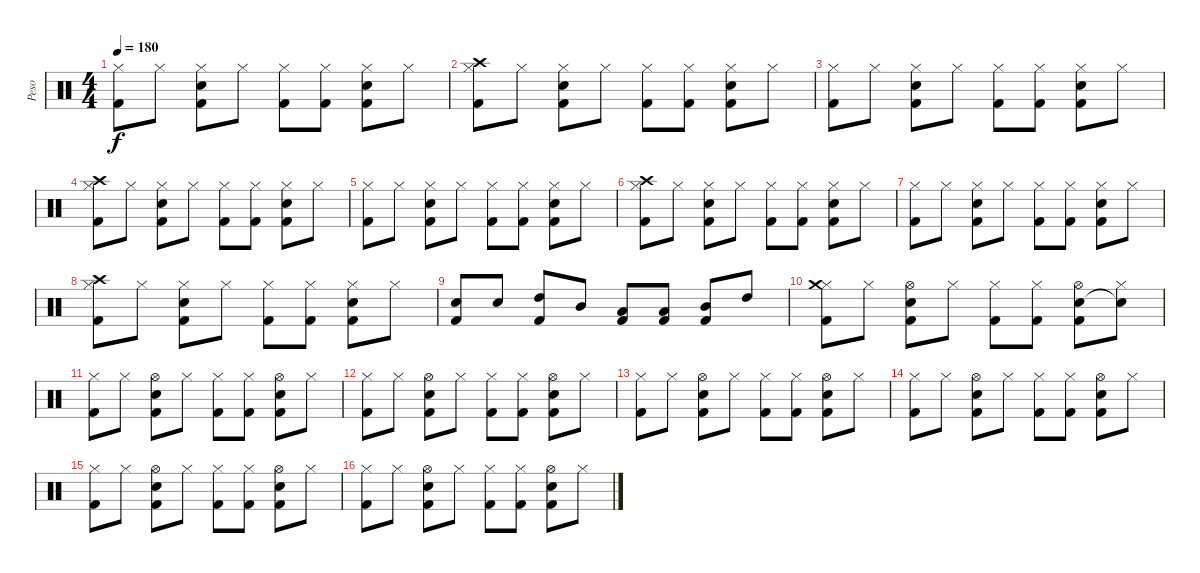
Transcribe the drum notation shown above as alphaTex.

\track ("Peso" "Peso") {instrument percussion}
\staff {score}
\articulation defaults
\ts (4 4)
\tempo 180
\clef neutral
\ks c
("Hi-Hat (closed)" "Kick (hit) 2").8{dy f} "Hi-Hat (closed)".8 ("Hi-Hat (closed)" "Electric Snare (hit)" "Kick (hit) 2").8 "Hi-Hat (closed)".8 ("Hi-Hat (closed)" "Kick (hit) 2").8 ("Hi-Hat (closed)" "Kick (hit) 2").8 ("Hi-Hat (closed)" "Electric Snare (hit)" "Kick (hit) 2").8 "Hi-Hat (closed)".8 |
("Hi-Hat (closed)" "Crash high (hit)" "Kick (hit) 2").8 "Hi-Hat (closed)".8 ("Hi-Hat (closed)" "Electric Snare (hit)" "Kick (hit) 2").8 "Hi-Hat (closed)".8 ("Hi-Hat (closed)" "Kick (hit) 2").8 ("Hi-Hat (closed)" "Kick (hit) 2").8 ("Hi-Hat (closed)" "Electric Snare (hit)" "Kick (hit) 2").8 "Hi-Hat (closed)".8 |
("Hi-Hat (closed)" "Kick (hit) 2").8 "Hi-Hat (closed)".8 ("Hi-Hat (closed)" "Electric Snare (hit)" "Kick (hit) 2").8 "Hi-Hat (closed)".8 ("Hi-Hat (closed)" "Kick (hit) 2").8 ("Hi-Hat (closed)" "Kick (hit) 2").8 ("Hi-Hat (closed)" "Electric Snare (hit)" "Kick (hit) 2").8 "Hi-Hat (closed)".8 |
("Hi-Hat (closed)" "Crash high (hit)" "Kick (hit) 2").8 "Hi-Hat (closed)".8 ("Hi-Hat (closed)" "Electric Snare (hit)" "Kick (hit) 2").8 "Hi-Hat (closed)".8 ("Hi-Hat (closed)" "Kick (hit) 2").8 ("Hi-Hat (closed)" "Kick (hit) 2").8 ("Hi-Hat (closed)" "Electric Snare (hit)" "Kick (hit) 2").8 "Hi-Hat (closed)".8 |
("Hi-Hat (closed)" "Kick (hit) 2").8 "Hi-Hat (closed)".8 ("Hi-Hat (closed)" "Electric Snare (hit)" "Kick (hit) 2").8 "Hi-Hat (closed)".8 ("Hi-Hat (closed)" "Kick (hit) 2").8 ("Hi-Hat (closed)" "Kick (hit) 2").8 ("Hi-Hat (closed)" "Electric Snare (hit)" "Kick (hit) 2").8 "Hi-Hat (closed)".8 |
("Hi-Hat (closed)" "Crash high (hit)" "Kick (hit) 2").8 "Hi-Hat (closed)".8 ("Hi-Hat (closed)" "Electric Snare (hit)" "Kick (hit) 2").8 "Hi-Hat (closed)".8 ("Hi-Hat (closed)" "Kick (hit) 2").8 ("Hi-Hat (closed)" "Kick (hit) 2").8 ("Hi-Hat (closed)" "Electric Snare (hit)" "Kick (hit) 2").8 "Hi-Hat (closed)".8 |
("Hi-Hat (closed)" "Kick (hit) 2").8 "Hi-Hat (closed)".8 ("Hi-Hat (closed)" "Electric Snare (hit)" "Kick (hit) 2").8 "Hi-Hat (closed)".8 ("Hi-Hat (closed)" "Kick (hit) 2").8 ("Hi-Hat (closed)" "Kick (hit) 2").8 ("Hi-Hat (closed)" "Electric Snare (hit)" "Kick (hit) 2").8 "Hi-Hat (closed)".8 |
("Hi-Hat (closed)" "Crash high (hit)" "Kick (hit) 2").8 "Hi-Hat (closed)".8 ("Hi-Hat (closed)" "Electric Snare (hit)" "Kick (hit) 2").8 "Hi-Hat (closed)".8 ("Hi-Hat (closed)" "Kick (hit) 2").8 ("Hi-Hat (closed)" "Kick (hit) 2").8 ("Hi-Hat (closed)" "Electric Snare (hit)" "Kick (hit) 2").8 "Hi-Hat (closed)".8 |
("Electric Snare (hit)" "Kick (hit) 2").8 "Electric Snare (hit)".8 ("High Tom (hit)" "Kick (hit) 2").8 "Mid Tom (hit)".8 ("Low Tom (hit)" "Kick (hit) 2").8 ("Low Tom (hit)" "Kick (hit) 2").8 ("Mid Tom (hit)" "Kick (hit) 2").8 "High Tom (hit)".8 |
("Hi-Hat (closed)" "Crash medium (hit)" "Kick (hit) 2").8 "Hi-Hat (closed)".8 ("Hi-Hat (open)" "Electric Snare (hit)" "Kick (hit) 2").8 "Hi-Hat (closed)".8 ("Hi-Hat (closed)" "Kick (hit) 2").8 ("Hi-Hat (closed)" "Kick (hit) 2").8 ("Hi-Hat (open)" "Electric Snare (hit)" "Kick (hit) 2").8 ("Hi-Hat (closed)" "Snare (hit)"{t}).8 |
("Hi-Hat (closed)" "Kick (hit) 2").8 "Hi-Hat (closed)".8 ("Hi-Hat (open)" "Electric Snare (hit)" "Kick (hit) 2").8 "Hi-Hat (closed)".8 ("Hi-Hat (closed)" "Kick (hit) 2").8 ("Hi-Hat (closed)" "Kick (hit) 2").8 ("Hi-Hat (open)" "Electric Snare (hit)" "Kick (hit) 2").8 "Hi-Hat (closed)".8 |
("Hi-Hat (closed)" "Kick (hit) 2").8 "Hi-Hat (closed)".8 ("Hi-Hat (open)" "Electric Snare (hit)" "Kick (hit) 2").8 "Hi-Hat (closed)".8 ("Hi-Hat (closed)" "Kick (hit) 2").8 ("Hi-Hat (closed)" "Kick (hit) 2").8 ("Hi-Hat (open)" "Electric Snare (hit)" "Kick (hit) 2").8 "Hi-Hat (closed)".8 |
("Hi-Hat (closed)" "Kick (hit) 2").8 "Hi-Hat (closed)".8 ("Hi-Hat (open)" "Electric Snare (hit)" "Kick (hit) 2").8 "Hi-Hat (closed)".8 ("Hi-Hat (closed)" "Kick (hit) 2").8 ("Hi-Hat (closed)" "Kick (hit) 2").8 ("Hi-Hat (open)" "Electric Snare (hit)" "Kick (hit) 2").8 "Hi-Hat (closed)".8 |
("Hi-Hat (closed)" "Kick (hit) 2").8 "Hi-Hat (closed)".8 ("Hi-Hat (open)" "Electric Snare (hit)" "Kick (hit) 2").8 "Hi-Hat (closed)".8 ("Hi-Hat (closed)" "Kick (hit) 2").8 ("Hi-Hat (closed)" "Kick (hit) 2").8 ("Hi-Hat (open)" "Electric Snare (hit)" "Kick (hit) 2").8 "Hi-Hat (closed)".8 |
("Hi-Hat (closed)" "Kick (hit) 2").8 "Hi-Hat (closed)".8 ("Hi-Hat (open)" "Electric Snare (hit)" "Kick (hit) 2").8 "Hi-Hat (closed)".8 ("Hi-Hat (closed)" "Kick (hit) 2").8 ("Hi-Hat (closed)" "Kick (hit) 2").8 ("Hi-Hat (open)" "Electric Snare (hit)" "Kick (hit) 2").8 "Hi-Hat (closed)".8 |
("Hi-Hat (closed)" "Kick (hit) 2").8 "Hi-Hat (closed)".8 ("Hi-Hat (open)" "Electric Snare (hit)" "Kick (hit) 2").8 "Hi-Hat (closed)".8 ("Hi-Hat (closed)" "Kick (hit) 2").8 ("Hi-Hat (closed)" "Kick (hit) 2").8 ("Hi-Hat (open)" "Electric Snare (hit)" "Kick (hit) 2").8 "Hi-Hat (closed)".8
